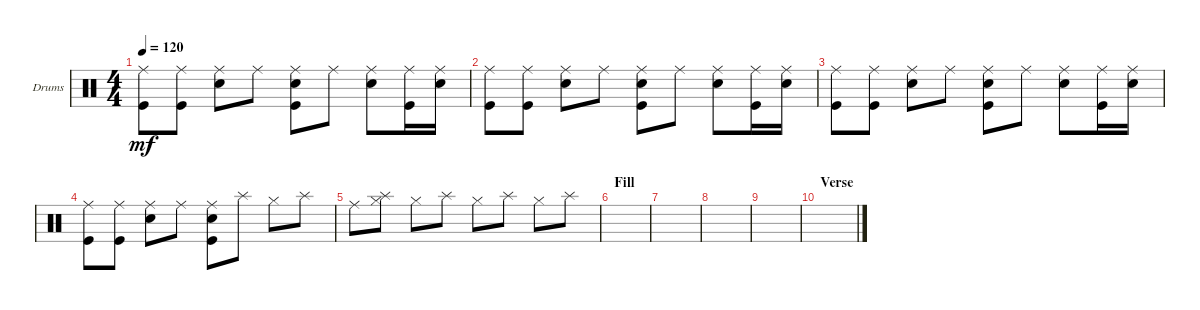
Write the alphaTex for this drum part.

\defaultSystemsLayout 4
\bracketExtendMode groupsimilarinstruments
\firstSystemTrackNameOrientation horizontal
\otherSystemsTrackNameOrientation horizontal
\track ("Drumkit" "Drums") {instrument percussion}
\staff {score}
\articulation defaults
\ts (4 4)
\tempo 120
\clef neutral
\scale
0.333333
\ks c
("Ride (middle)" "Kick (hit)").8{dy mf} ("Ride (middle)" "Kick (hit)").8 ("Ride (middle)" "Snare (hit) 2").8 "Ride (middle)".8 ("Ride (middle)" "Snare (hit) 2" "Kick (hit)").8 "Ride (middle)".8 ("Ride (middle)" "Snare (hit) 2").8 ("Ride (middle)" "Kick (hit)").16 ("Snare (hit) 2" "Ride (middle)").16 |
\scale
0.333333 ("Ride (middle)" "Kick (hit)").8 ("Ride (middle)" "Kick (hit)").8 ("Ride (middle)" "Snare (hit) 2").8 "Ride (middle)".8 ("Ride (middle)" "Snare (hit) 2" "Kick (hit)").8 "Ride (middle)".8 ("Ride (middle)" "Snare (hit) 2").8 ("Ride (middle)" "Kick (hit)").16 ("Snare (hit) 2" "Ride (middle)").16 |
\scale
0.333333 ("Ride (middle)" "Kick (hit)").8 ("Ride (middle)" "Kick (hit)").8 ("Ride (middle)" "Snare (hit) 2").8 "Ride (middle)".8 ("Ride (middle)" "Snare (hit) 2" "Kick (hit)").8 "Ride (middle)".8 ("Ride (middle)" "Snare (hit) 2").8 ("Ride (middle)" "Kick (hit)").16 ("Snare (hit) 2" "Ride (middle)").16 |
\scale
0.333333 ("Ride (middle)" "Kick (hit)").8 ("Ride (middle)" "Kick (hit)").8 ("Ride (middle)" "Snare (hit) 2").8 "Ride (middle)".8 ("Snare (hit) 2" "Kick (hit)" "Ride (middle)").8 "Splash (hit)".8 "Hi-Hat (closed)".8 "Splash (hit)".8 |
\scale
0.333333 "Ride (middle)".8 ("Splash (hit)" "Hi-Hat (closed)").8 "Hi-Hat (closed)".8 "Splash (hit)".8 "Hi-Hat (closed)".8 "Splash (hit)".8 "Hi-Hat (closed)".8 "Splash (hit)".8 |
\section ("" "Fill")
\scale
0.333333 |
\scale
0.333333 |
\scale
0.333333 |
\scale
0.333333 |
\section ("" "Verse")
\scale
0.333333 |
\scale
0.333333 |
\scale
0.333333 |
\scale
0.333333 |
\scale
0.333333 |
\scale
0.333333 |
\scale
0.333333
